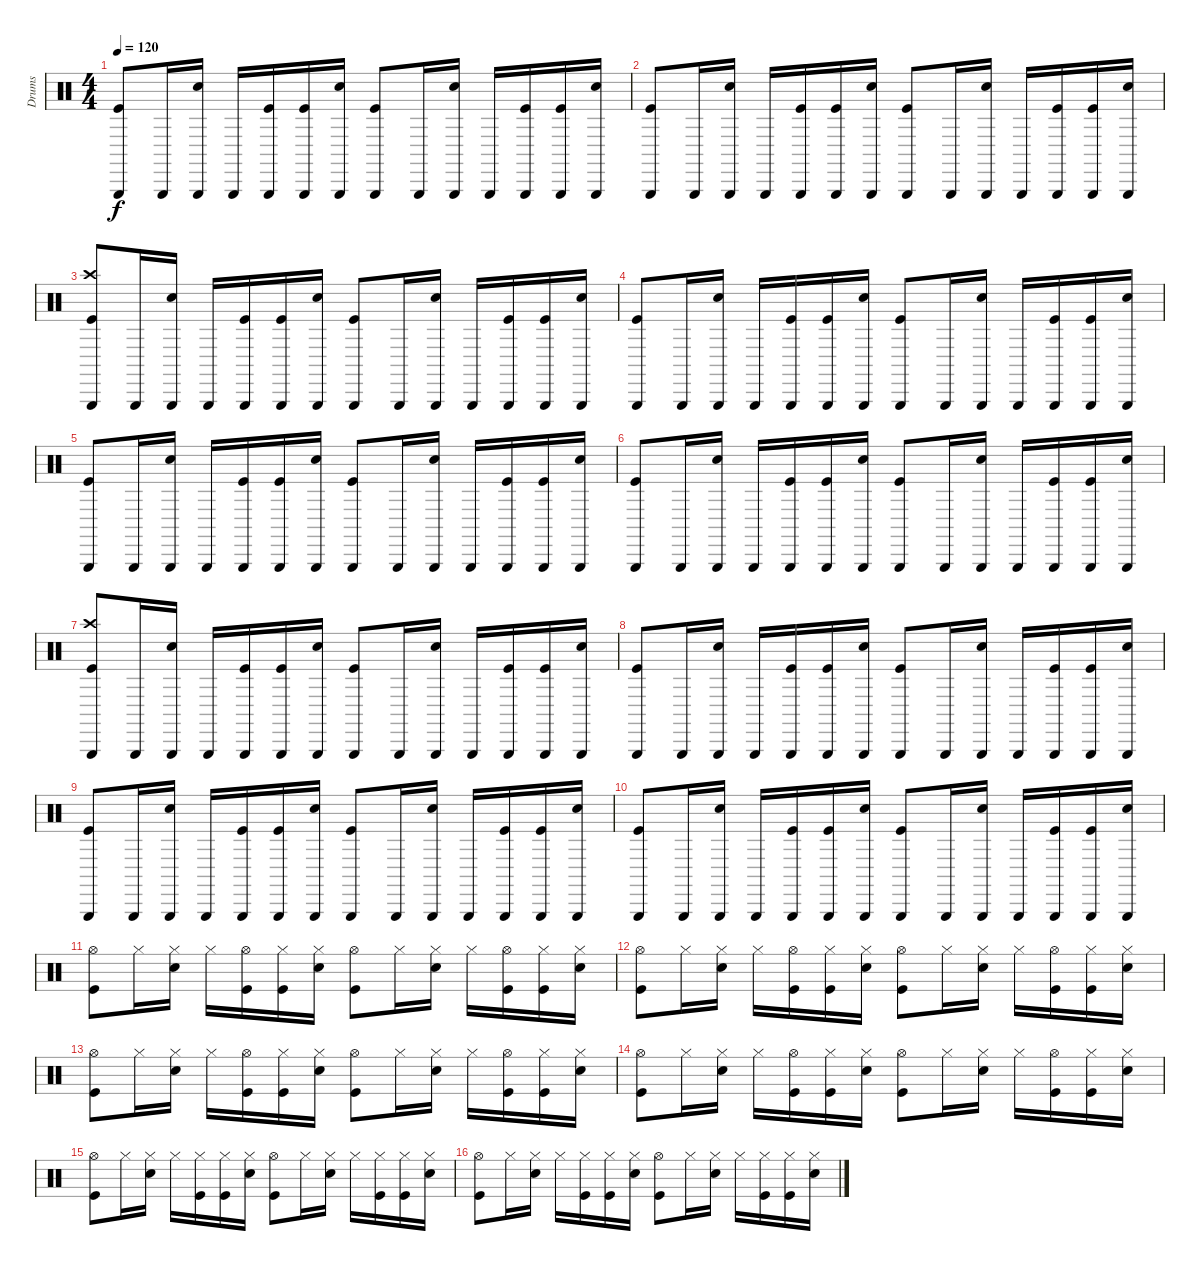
\track ("Drums" "Drums") {instrument percussion}
\staff {score}
\articulation defaults
\ts (4 4)
\tempo 120
\clef neutral
\ks c
("Triangle (hit)" "Kick (hit)").8{dy f} "Triangle (hit)".16 ("Triangle (hit)" "Snare (hit) 2").16 "Triangle (hit)".16 ("Triangle (hit)" "Kick (hit)").16 ("Triangle (hit)" "Kick (hit)").16 ("Triangle (hit)" "Snare (hit) 2").16 ("Triangle (hit)" "Kick (hit)").8 "Triangle (hit)".16 ("Triangle (hit)" "Snare (hit) 2").16 "Triangle (hit)".16 ("Triangle (hit)" "Kick (hit)").16 ("Triangle (hit)" "Kick (hit)").16 ("Triangle (hit)" "Snare (hit) 2").16 |
("Triangle (hit)" "Kick (hit)").8 "Triangle (hit)".16 ("Triangle (hit)" "Snare (hit) 2").16 "Triangle (hit)".16 ("Triangle (hit)" "Kick (hit)").16 ("Triangle (hit)" "Kick (hit)").16 ("Triangle (hit)" "Snare (hit) 2").16 ("Triangle (hit)" "Kick (hit)").8 "Triangle (hit)".16 ("Triangle (hit)" "Snare (hit) 2").16 "Triangle (hit)".16 ("Triangle (hit)" "Kick (hit)").16 ("Triangle (hit)" "Kick (hit)").16 ("Triangle (hit)" "Snare (hit) 2").16 |
("Crash high (hit)" "Triangle (hit)" "Kick (hit)").8 "Triangle (hit)".16 ("Triangle (hit)" "Snare (hit) 2").16 "Triangle (hit)".16 ("Triangle (hit)" "Kick (hit)").16 ("Triangle (hit)" "Kick (hit)").16 ("Triangle (hit)" "Snare (hit) 2").16 ("Triangle (hit)" "Kick (hit)").8 "Triangle (hit)".16 ("Triangle (hit)" "Snare (hit) 2").16 "Triangle (hit)".16 ("Triangle (hit)" "Kick (hit)").16 ("Triangle (hit)" "Kick (hit)").16 ("Triangle (hit)" "Snare (hit) 2").16 |
("Triangle (hit)" "Kick (hit)").8 "Triangle (hit)".16 ("Triangle (hit)" "Snare (hit) 2").16 "Triangle (hit)".16 ("Triangle (hit)" "Kick (hit)").16 ("Triangle (hit)" "Kick (hit)").16 ("Triangle (hit)" "Snare (hit) 2").16 ("Triangle (hit)" "Kick (hit)").8 "Triangle (hit)".16 ("Triangle (hit)" "Snare (hit) 2").16 "Triangle (hit)".16 ("Triangle (hit)" "Kick (hit)").16 ("Triangle (hit)" "Kick (hit)").16 ("Triangle (hit)" "Snare (hit) 2").16 |
("Triangle (hit)" "Kick (hit)").8 "Triangle (hit)".16 ("Triangle (hit)" "Snare (hit) 2").16 "Triangle (hit)".16 ("Triangle (hit)" "Kick (hit)").16 ("Triangle (hit)" "Kick (hit)").16 ("Triangle (hit)" "Snare (hit) 2").16 ("Triangle (hit)" "Kick (hit)").8 "Triangle (hit)".16 ("Triangle (hit)" "Snare (hit) 2").16 "Triangle (hit)".16 ("Triangle (hit)" "Kick (hit)").16 ("Triangle (hit)" "Kick (hit)").16 ("Triangle (hit)" "Snare (hit) 2").16 |
("Triangle (hit)" "Kick (hit)").8 "Triangle (hit)".16 ("Triangle (hit)" "Snare (hit) 2").16 "Triangle (hit)".16 ("Triangle (hit)" "Kick (hit)").16 ("Triangle (hit)" "Kick (hit)").16 ("Triangle (hit)" "Snare (hit) 2").16 ("Triangle (hit)" "Kick (hit)").8 "Triangle (hit)".16 ("Triangle (hit)" "Snare (hit) 2").16 "Triangle (hit)".16 ("Triangle (hit)" "Kick (hit)").16 ("Triangle (hit)" "Kick (hit)").16 ("Triangle (hit)" "Snare (hit) 2").16 |
("Crash high (hit)" "Triangle (hit)" "Kick (hit)").8 "Triangle (hit)".16 ("Triangle (hit)" "Snare (hit) 2").16 "Triangle (hit)".16 ("Triangle (hit)" "Kick (hit)").16 ("Triangle (hit)" "Kick (hit)").16 ("Triangle (hit)" "Snare (hit) 2").16 ("Triangle (hit)" "Kick (hit)").8 "Triangle (hit)".16 ("Triangle (hit)" "Snare (hit) 2").16 "Triangle (hit)".16 ("Triangle (hit)" "Kick (hit)").16 ("Triangle (hit)" "Kick (hit)").16 ("Triangle (hit)" "Snare (hit) 2").16 |
("Triangle (hit)" "Kick (hit)").8 "Triangle (hit)".16 ("Triangle (hit)" "Snare (hit) 2").16 "Triangle (hit)".16 ("Triangle (hit)" "Kick (hit)").16 ("Triangle (hit)" "Kick (hit)").16 ("Triangle (hit)" "Snare (hit) 2").16 ("Triangle (hit)" "Kick (hit)").8 "Triangle (hit)".16 ("Triangle (hit)" "Snare (hit) 2").16 "Triangle (hit)".16 ("Triangle (hit)" "Kick (hit)").16 ("Triangle (hit)" "Kick (hit)").16 ("Triangle (hit)" "Snare (hit) 2").16 |
("Triangle (hit)" "Kick (hit)").8 "Triangle (hit)".16 ("Triangle (hit)" "Snare (hit) 2").16 "Triangle (hit)".16 ("Triangle (hit)" "Kick (hit)").16 ("Triangle (hit)" "Kick (hit)").16 ("Triangle (hit)" "Snare (hit) 2").16 ("Triangle (hit)" "Kick (hit)").8 "Triangle (hit)".16 ("Triangle (hit)" "Snare (hit) 2").16 "Triangle (hit)".16 ("Triangle (hit)" "Kick (hit)").16 ("Triangle (hit)" "Kick (hit)").16 ("Triangle (hit)" "Snare (hit) 2").16 |
("Triangle (hit)" "Kick (hit)").8 "Triangle (hit)".16 ("Triangle (hit)" "Snare (hit) 2").16 "Triangle (hit)".16 ("Triangle (hit)" "Kick (hit)").16 ("Triangle (hit)" "Kick (hit)").16 ("Triangle (hit)" "Snare (hit) 2").16 ("Triangle (hit)" "Kick (hit)").8 "Triangle (hit)".16 ("Triangle (hit)" "Snare (hit) 2").16 "Triangle (hit)".16 ("Triangle (hit)" "Kick (hit)").16 ("Triangle (hit)" "Kick (hit)").16 ("Triangle (hit)" "Snare (hit) 2").16 |
("Hi-Hat (open)" "Kick (hit)").8 "Hi-Hat (closed)".16 ("Hi-Hat (closed)" "Snare (hit) 2").16 "Hi-Hat (closed)".16 ("Hi-Hat (open)" "Kick (hit)").16 ("Hi-Hat (closed)" "Kick (hit)").16 ("Hi-Hat (closed)" "Snare (hit) 2").16 ("Hi-Hat (open)" "Kick (hit)").8 "Hi-Hat (closed)".16 ("Hi-Hat (closed)" "Snare (hit) 2").16 "Hi-Hat (closed)".16 ("Hi-Hat (open)" "Kick (hit)").16 ("Hi-Hat (closed)" "Kick (hit)").16 ("Hi-Hat (closed)" "Snare (hit) 2").16 |
("Hi-Hat (open)" "Kick (hit)").8 "Hi-Hat (closed)".16 ("Hi-Hat (closed)" "Snare (hit) 2").16 "Hi-Hat (closed)".16 ("Hi-Hat (open)" "Kick (hit)").16 ("Hi-Hat (closed)" "Kick (hit)").16 ("Hi-Hat (closed)" "Snare (hit) 2").16 ("Hi-Hat (open)" "Kick (hit)").8 "Hi-Hat (closed)".16 ("Hi-Hat (closed)" "Snare (hit) 2").16 "Hi-Hat (closed)".16 ("Hi-Hat (open)" "Kick (hit)").16 ("Hi-Hat (closed)" "Kick (hit)").16 ("Hi-Hat (closed)" "Snare (hit) 2").16 |
("Hi-Hat (open)" "Kick (hit)").8 "Hi-Hat (closed)".16 ("Hi-Hat (closed)" "Snare (hit) 2").16 "Hi-Hat (closed)".16 ("Hi-Hat (open)" "Kick (hit)").16 ("Hi-Hat (closed)" "Kick (hit)").16 ("Hi-Hat (closed)" "Snare (hit) 2").16 ("Hi-Hat (open)" "Kick (hit)").8 "Hi-Hat (closed)".16 ("Hi-Hat (closed)" "Snare (hit) 2").16 "Hi-Hat (closed)".16 ("Hi-Hat (open)" "Kick (hit)").16 ("Hi-Hat (closed)" "Kick (hit)").16 ("Hi-Hat (closed)" "Snare (hit) 2").16 |
("Hi-Hat (open)" "Kick (hit)").8 "Hi-Hat (closed)".16 ("Hi-Hat (closed)" "Snare (hit) 2").16 "Hi-Hat (closed)".16 ("Hi-Hat (open)" "Kick (hit)").16 ("Hi-Hat (closed)" "Kick (hit)").16 ("Hi-Hat (closed)" "Snare (hit) 2").16 ("Hi-Hat (open)" "Kick (hit)").8 "Hi-Hat (closed)".16 ("Hi-Hat (closed)" "Snare (hit) 2").16 "Hi-Hat (closed)".16 ("Hi-Hat (open)" "Kick (hit)").16 ("Hi-Hat (closed)" "Kick (hit)").16 ("Hi-Hat (closed)" "Snare (hit) 2").16 |
("Hi-Hat (open)" "Kick (hit)").8 "Hi-Hat (closed)".16 ("Hi-Hat (closed)" "Snare (hit) 2").16 "Hi-Hat (closed)".16 ("Hi-Hat (closed)" "Kick (hit)").16 ("Hi-Hat (closed)" "Kick (hit)").16 ("Hi-Hat (closed)" "Snare (hit) 2").16 ("Hi-Hat (open)" "Kick (hit)").8 "Hi-Hat (closed)".16 ("Hi-Hat (closed)" "Snare (hit) 2").16 "Hi-Hat (closed)".16 ("Hi-Hat (closed)" "Kick (hit)").16 ("Hi-Hat (closed)" "Kick (hit)").16 ("Hi-Hat (closed)" "Snare (hit) 2").16 |
("Hi-Hat (open)" "Kick (hit)").8 "Hi-Hat (closed)".16 ("Hi-Hat (closed)" "Snare (hit) 2").16 "Hi-Hat (closed)".16 ("Hi-Hat (closed)" "Kick (hit)").16 ("Hi-Hat (closed)" "Kick (hit)").16 ("Hi-Hat (closed)" "Snare (hit) 2").16 ("Hi-Hat (open)" "Kick (hit)").8 "Hi-Hat (closed)".16 ("Hi-Hat (closed)" "Snare (hit) 2").16 "Hi-Hat (closed)".16 ("Hi-Hat (closed)" "Kick (hit)").16 ("Hi-Hat (closed)" "Kick (hit)").16 ("Hi-Hat (closed)" "Snare (hit) 2").16
